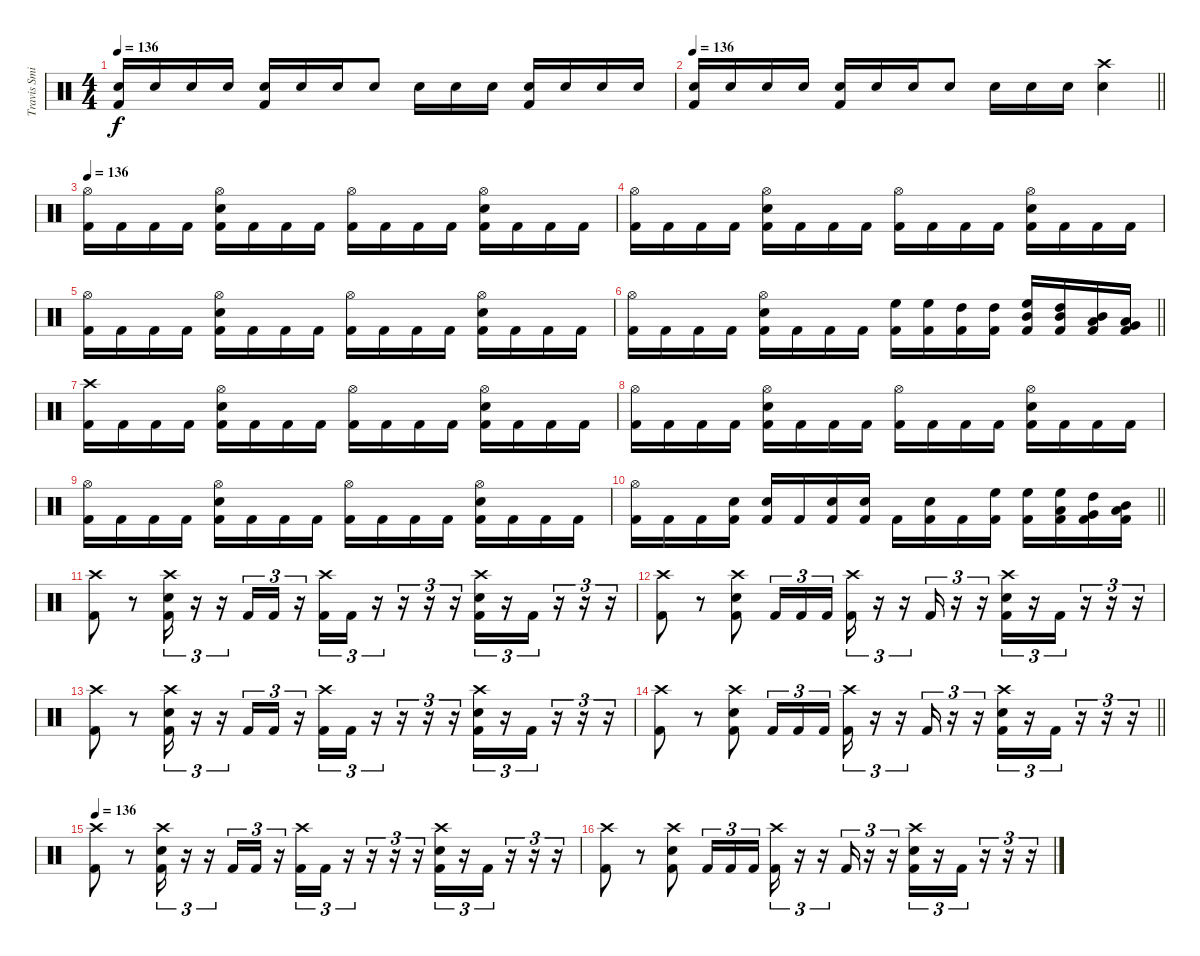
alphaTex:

\track ("Travis Smith" "Travis Smi") {instrument percussion}
\staff {score}
\articulation defaults
\ts (4 4)
\tempo 136
\clef neutral
\ks c
("Kick (hit) 2" "Snare (hit) 2").16{dy f} "Snare (hit) 2".16 "Snare (hit) 2".16 "Snare (hit) 2".16 ("Kick (hit) 2" "Snare (hit) 2").16 "Snare (hit) 2".16 "Snare (hit) 2".16 "Snare (hit) 2".8 "Snare (hit) 2".16 "Snare (hit) 2".16 "Snare (hit) 2".16 ("Kick (hit) 2" "Snare (hit) 2").16 "Snare (hit) 2".16 "Snare (hit) 2".16 "Snare (hit) 2".16 |
\tempo 136
\barLineRight lightlight
("Kick (hit) 2" "Snare (hit) 2").16 "Snare (hit) 2".16 "Snare (hit) 2".16 "Snare (hit) 2".16 ("Kick (hit) 2" "Snare (hit) 2").16 "Snare (hit) 2".16 "Snare (hit) 2".16 "Snare (hit) 2".8 "Snare (hit) 2".16 "Snare (hit) 2".16 "Snare (hit) 2".16 ("Crash high (hit)" "Snare (hit) 2").4 |
\tempo 136
("Hi-Hat (open)" "Kick (hit) 2").16 "Kick (hit) 2".16 "Kick (hit) 2".16 "Kick (hit) 2".16 ("Hi-Hat (open)" "Snare (hit) 2" "Kick (hit) 2").16 "Kick (hit) 2".16 "Kick (hit) 2".16 "Kick (hit) 2".16 ("Hi-Hat (open)" "Kick (hit) 2").16 "Kick (hit) 2".16 "Kick (hit) 2".16 "Kick (hit) 2".16 ("Hi-Hat (open)" "Snare (hit) 2" "Kick (hit) 2").16 "Kick (hit) 2".16 "Kick (hit) 2".16 "Kick (hit) 2".16 |
("Hi-Hat (open)" "Kick (hit) 2").16 "Kick (hit) 2".16 "Kick (hit) 2".16 "Kick (hit) 2".16 ("Hi-Hat (open)" "Snare (hit) 2" "Kick (hit) 2").16 "Kick (hit) 2".16 "Kick (hit) 2".16 "Kick (hit) 2".16 ("Hi-Hat (open)" "Kick (hit) 2").16 "Kick (hit) 2".16 "Kick (hit) 2".16 "Kick (hit) 2".16 ("Hi-Hat (open)" "Snare (hit) 2" "Kick (hit) 2").16 "Kick (hit) 2".16 "Kick (hit) 2".16 "Kick (hit) 2".16 |
("Hi-Hat (open)" "Kick (hit) 2").16 "Kick (hit) 2".16 "Kick (hit) 2".16 "Kick (hit) 2".16 ("Hi-Hat (open)" "Snare (hit) 2" "Kick (hit) 2").16 "Kick (hit) 2".16 "Kick (hit) 2".16 "Kick (hit) 2".16 ("Hi-Hat (open)" "Kick (hit) 2").16 "Kick (hit) 2".16 "Kick (hit) 2".16 "Kick (hit) 2".16 ("Hi-Hat (open)" "Snare (hit) 2" "Kick (hit) 2").16 "Kick (hit) 2".16 "Kick (hit) 2".16 "Kick (hit) 2".16 |
\barLineRight lightlight
("Hi-Hat (open)" "Kick (hit) 2").16 "Kick (hit) 2".16 "Kick (hit) 2".16 "Kick (hit) 2".16 ("Hi-Hat (open)" "Snare (hit) 2" "Kick (hit) 2").16 "Kick (hit) 2".16 "Kick (hit) 2".16 "Kick (hit) 2".16 ("High Floor Tom (hit)" "Kick (hit) 2").16 ("High Floor Tom (hit)" "Kick (hit) 2").16 ("High Tom (hit)" "Kick (hit) 2").16 ("High Tom (hit)" "Kick (hit) 2").16 ("Mid Tom (hit)" "High Floor Tom (hit)" "Kick (hit) 2").16 ("Mid Tom (hit)" "High Tom (hit)" "Kick (hit) 2").16 ("Low Tom (hit)" "Mid Tom (hit)" "Kick (hit) 2").16 ("Very Low Tom (hit)" "Low Tom (hit)" "Kick (hit) 2").16 |
("Crash high (hit)" "Kick (hit) 2").16 "Kick (hit) 2".16 "Kick (hit) 2".16 "Kick (hit) 2".16 ("Hi-Hat (open)" "Snare (hit) 2" "Kick (hit) 2").16 "Kick (hit) 2".16 "Kick (hit) 2".16 "Kick (hit) 2".16 ("Hi-Hat (open)" "Kick (hit) 2").16 "Kick (hit) 2".16 "Kick (hit) 2".16 "Kick (hit) 2".16 ("Hi-Hat (open)" "Snare (hit) 2" "Kick (hit) 2").16 "Kick (hit) 2".16 "Kick (hit) 2".16 "Kick (hit) 2".16 |
("Hi-Hat (open)" "Kick (hit) 2").16 "Kick (hit) 2".16 "Kick (hit) 2".16 "Kick (hit) 2".16 ("Hi-Hat (open)" "Snare (hit) 2" "Kick (hit) 2").16 "Kick (hit) 2".16 "Kick (hit) 2".16 "Kick (hit) 2".16 ("Hi-Hat (open)" "Kick (hit) 2").16 "Kick (hit) 2".16 "Kick (hit) 2".16 "Kick (hit) 2".16 ("Hi-Hat (open)" "Snare (hit) 2" "Kick (hit) 2").16 "Kick (hit) 2".16 "Kick (hit) 2".16 "Kick (hit) 2".16 |
("Hi-Hat (open)" "Kick (hit) 2").16 "Kick (hit) 2".16 "Kick (hit) 2".16 "Kick (hit) 2".16 ("Hi-Hat (open)" "Snare (hit) 2" "Kick (hit) 2").16 "Kick (hit) 2".16 "Kick (hit) 2".16 "Kick (hit) 2".16 ("Hi-Hat (open)" "Kick (hit) 2").16 "Kick (hit) 2".16 "Kick (hit) 2".16 "Kick (hit) 2".16 ("Hi-Hat (open)" "Snare (hit) 2" "Kick (hit) 2").16 "Kick (hit) 2".16 "Kick (hit) 2".16 "Kick (hit) 2".16 |
\barLineRight lightlight
("Hi-Hat (open)" "Kick (hit) 2").16 "Kick (hit) 2".16 "Kick (hit) 2".16 ("Snare (hit) 2" "Kick (hit) 2").16 ("Snare (hit) 2" "Kick (hit) 2").16 "Kick (hit) 2".16 ("Snare (hit) 2" "Kick (hit) 2").16 ("Snare (hit) 2" "Kick (hit) 2").16 "Kick (hit) 2".16 ("Snare (hit) 2" "Kick (hit) 2").16 "Kick (hit) 2".16 ("High Floor Tom (hit)" "Kick (hit) 2").16 ("High Floor Tom (hit)" "Kick (hit) 2").16 ("Low Tom (hit)" "High Floor Tom (hit)" "Kick (hit) 2").16 ("Very Low Tom (hit)" "High Tom (hit)" "Kick (hit) 2").16 ("Low Floor Tom (hit)" "Mid Tom (hit)" "Kick (hit) 2").16 |
("Crash high (hit)" "Kick (hit) 2").8 r.8 ("Crash high (hit)" "Snare (hit) 2" "Kick (hit) 2").16{tu (3 2)} r.16{tu (3 2)} r.16{tu (3 2)} "Kick (hit) 2".16{tu (3 2)} "Kick (hit) 2".16{tu (3 2)} r.16{tu (3 2)} ("Crash high (hit)" "Kick (hit) 2").16{tu (3 2)} "Kick (hit) 2".16{tu (3 2)} r.16{tu (3 2)} r.16{tu (3 2)} r.16{tu (3 2)} r.16{tu (3 2)} ("Crash high (hit)" "Snare (hit) 2" "Kick (hit) 2").16{tu (3 2)} r.16{tu (3 2)} "Kick (hit) 2".16{tu (3 2)} r.16{tu (3 2)} r.16{tu (3 2)} r.16{tu (3 2)} |
("Crash high (hit)" "Kick (hit) 2").8 r.8 ("Crash high (hit)" "Snare (hit) 2" "Kick (hit) 2").8 "Kick (hit) 2".16{tu (3 2)} "Kick (hit) 2".16{tu (3 2)} "Kick (hit) 2".16{tu (3 2)} ("Crash high (hit)" "Kick (hit) 2").16{tu (3 2)} r.16{tu (3 2)} r.16{tu (3 2)} "Kick (hit) 2".16{tu (3 2)} r.16{tu (3 2)} r.16{tu (3 2)} ("Crash high (hit)" "Snare (hit) 2" "Kick (hit) 2").16{tu (3 2)} r.16{tu (3 2)} "Kick (hit) 2".16{tu (3 2)} r.16{tu (3 2)} r.16{tu (3 2)} r.16{tu (3 2)} |
("Crash high (hit)" "Kick (hit) 2").8 r.8 ("Crash high (hit)" "Snare (hit) 2" "Kick (hit) 2").16{tu (3 2)} r.16{tu (3 2)} r.16{tu (3 2)} "Kick (hit) 2".16{tu (3 2)} "Kick (hit) 2".16{tu (3 2)} r.16{tu (3 2)} ("Crash high (hit)" "Kick (hit) 2").16{tu (3 2)} "Kick (hit) 2".16{tu (3 2)} r.16{tu (3 2)} r.16{tu (3 2)} r.16{tu (3 2)} r.16{tu (3 2)} ("Crash high (hit)" "Snare (hit) 2" "Kick (hit) 2").16{tu (3 2)} r.16{tu (3 2)} "Kick (hit) 2".16{tu (3 2)} r.16{tu (3 2)} r.16{tu (3 2)} r.16{tu (3 2)} |
\barLineRight lightlight
("Crash high (hit)" "Kick (hit) 2").8 r.8 ("Crash high (hit)" "Snare (hit) 2" "Kick (hit) 2").8 "Kick (hit) 2".16{tu (3 2)} "Kick (hit) 2".16{tu (3 2)} "Kick (hit) 2".16{tu (3 2)} ("Crash high (hit)" "Kick (hit) 2").16{tu (3 2)} r.16{tu (3 2)} r.16{tu (3 2)} "Kick (hit) 2".16{tu (3 2)} r.16{tu (3 2)} r.16{tu (3 2)} ("Crash high (hit)" "Snare (hit) 2" "Kick (hit) 2").16{tu (3 2)} r.16{tu (3 2)} "Kick (hit) 2".16{tu (3 2)} r.16{tu (3 2)} r.16{tu (3 2)} r.16{tu (3 2)} |
\tempo 136
("Crash high (hit)" "Kick (hit) 2").8 r.8 ("Crash high (hit)" "Snare (hit) 2" "Kick (hit) 2").16{tu (3 2)} r.16{tu (3 2)} r.16{tu (3 2)} "Kick (hit) 2".16{tu (3 2)} "Kick (hit) 2".16{tu (3 2)} r.16{tu (3 2)} ("Crash high (hit)" "Kick (hit) 2").16{tu (3 2)} "Kick (hit) 2".16{tu (3 2)} r.16{tu (3 2)} r.16{tu (3 2)} r.16{tu (3 2)} r.16{tu (3 2)} ("Crash high (hit)" "Snare (hit) 2" "Kick (hit) 2").16{tu (3 2)} r.16{tu (3 2)} "Kick (hit) 2".16{tu (3 2)} r.16{tu (3 2)} r.16{tu (3 2)} r.16{tu (3 2)} |
("Crash high (hit)" "Kick (hit) 2").8 r.8 ("Crash high (hit)" "Snare (hit) 2" "Kick (hit) 2").8 "Kick (hit) 2".16{tu (3 2)} "Kick (hit) 2".16{tu (3 2)} "Kick (hit) 2".16{tu (3 2)} ("Crash high (hit)" "Kick (hit) 2").16{tu (3 2)} r.16{tu (3 2)} r.16{tu (3 2)} "Kick (hit) 2".16{tu (3 2)} r.16{tu (3 2)} r.16{tu (3 2)} ("Crash high (hit)" "Snare (hit) 2" "Kick (hit) 2").16{tu (3 2)} r.16{tu (3 2)} "Kick (hit) 2".16{tu (3 2)} r.16{tu (3 2)} r.16{tu (3 2)} r.16{tu (3 2)}
